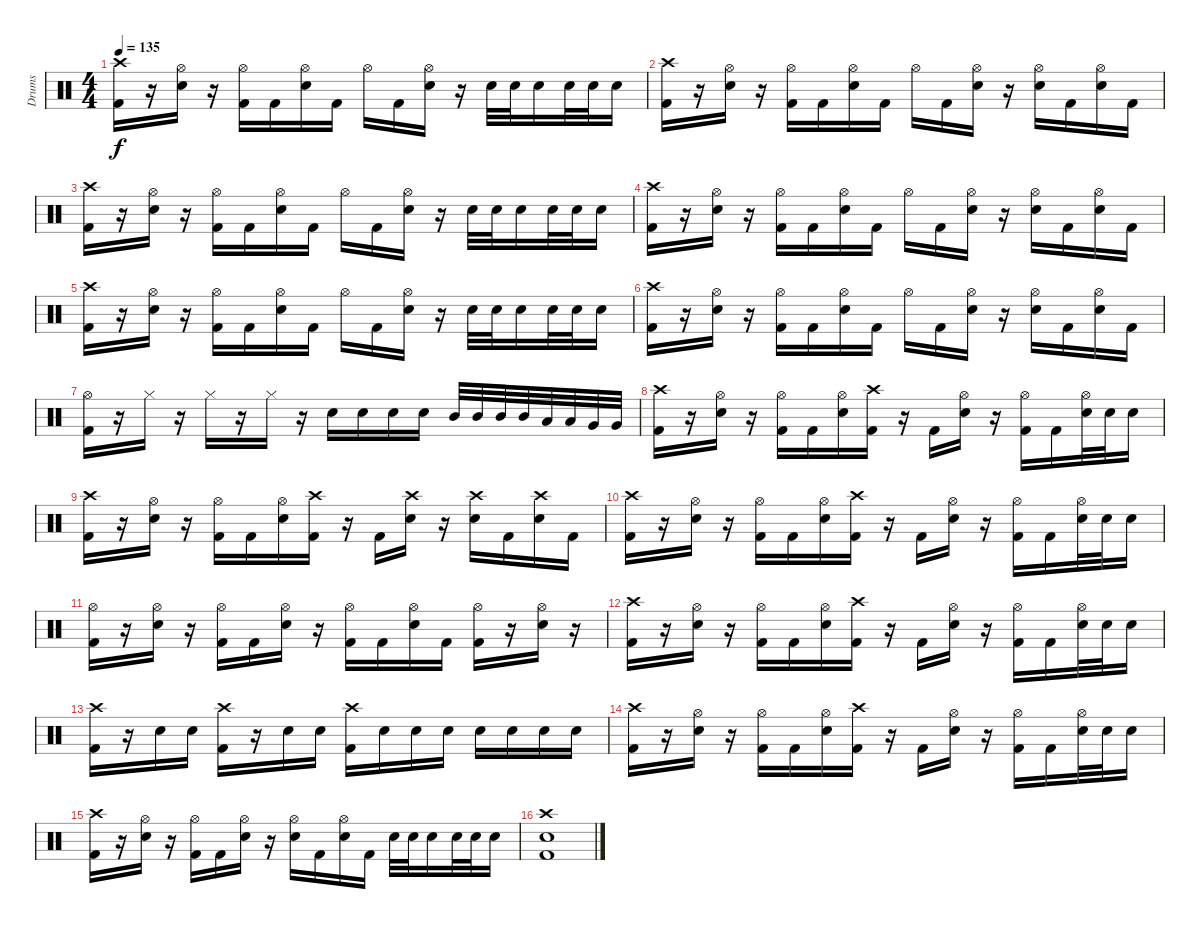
\track ("Drums" "Drums") {instrument percussion}
\staff {score}
\articulation defaults
\ts (4 4)
\tempo 135
\clef neutral
\ks c
("Crash high (hit)" "Kick (hit) 2").16{dy f} r.16 ("Hi-Hat (open)" "Electric Snare (hit)").16 r.16 ("Hi-Hat (open)" "Kick (hit) 2").16 "Kick (hit) 2".16 ("Hi-Hat (open)" "Electric Snare (hit)").16 "Kick (hit) 2".16 "Hi-Hat (open)".16 "Kick (hit) 2".16 ("Hi-Hat (open)" "Electric Snare (hit)").16 r.16 "Electric Snare (hit)".32 "Electric Snare (hit)".32 "Electric Snare (hit)".16 "Electric Snare (hit)".32 "Electric Snare (hit)".32 "Electric Snare (hit)".16 |
("Crash high (hit)" "Kick (hit) 2").16 r.16 ("Hi-Hat (open)" "Electric Snare (hit)").16 r.16 ("Hi-Hat (open)" "Kick (hit) 2").16 "Kick (hit) 2".16 ("Hi-Hat (open)" "Electric Snare (hit)").16 "Kick (hit) 2".16 "Hi-Hat (open)".16 "Kick (hit) 2".16 ("Hi-Hat (open)" "Electric Snare (hit)").16 r.16 ("Hi-Hat (open)" "Electric Snare (hit)").16 "Kick (hit) 2".16 ("Hi-Hat (open)" "Electric Snare (hit)").16 "Kick (hit) 2".16 |
("Crash high (hit)" "Kick (hit) 2").16 r.16 ("Hi-Hat (open)" "Electric Snare (hit)").16 r.16 ("Hi-Hat (open)" "Kick (hit) 2").16 "Kick (hit) 2".16 ("Hi-Hat (open)" "Electric Snare (hit)").16 "Kick (hit) 2".16 "Hi-Hat (open)".16 "Kick (hit) 2".16 ("Hi-Hat (open)" "Electric Snare (hit)").16 r.16 "Electric Snare (hit)".32 "Electric Snare (hit)".32 "Electric Snare (hit)".16 "Electric Snare (hit)".32 "Electric Snare (hit)".32 "Electric Snare (hit)".16 |
("Crash high (hit)" "Kick (hit) 2").16 r.16 ("Hi-Hat (open)" "Electric Snare (hit)").16 r.16 ("Hi-Hat (open)" "Kick (hit) 2").16 "Kick (hit) 2".16 ("Hi-Hat (open)" "Electric Snare (hit)").16 "Kick (hit) 2".16 "Hi-Hat (open)".16 "Kick (hit) 2".16 ("Hi-Hat (open)" "Electric Snare (hit)").16 r.16 ("Hi-Hat (open)" "Electric Snare (hit)").16 "Kick (hit) 2".16 ("Hi-Hat (open)" "Electric Snare (hit)").16 "Kick (hit) 2".16 |
("Crash high (hit)" "Kick (hit) 2").16 r.16 ("Hi-Hat (open)" "Electric Snare (hit)").16 r.16 ("Hi-Hat (open)" "Kick (hit) 2").16 "Kick (hit) 2".16 ("Hi-Hat (open)" "Electric Snare (hit)").16 "Kick (hit) 2".16 "Hi-Hat (open)".16 "Kick (hit) 2".16 ("Hi-Hat (open)" "Electric Snare (hit)").16 r.16 "Electric Snare (hit)".32 "Electric Snare (hit)".32 "Electric Snare (hit)".16 "Electric Snare (hit)".32 "Electric Snare (hit)".32 "Electric Snare (hit)".16 |
("Crash high (hit)" "Kick (hit) 2").16 r.16 ("Hi-Hat (open)" "Electric Snare (hit)").16 r.16 ("Hi-Hat (open)" "Kick (hit) 2").16 "Kick (hit) 2".16 ("Hi-Hat (open)" "Electric Snare (hit)").16 "Kick (hit) 2".16 "Hi-Hat (open)".16 "Kick (hit) 2".16 ("Hi-Hat (open)" "Electric Snare (hit)").16 r.16 ("Hi-Hat (open)" "Electric Snare (hit)").16 "Kick (hit) 2".16 ("Hi-Hat (open)" "Electric Snare (hit)").16 "Kick (hit) 2".16 |
("Hi-Hat (open)" "Kick (hit) 2").16 r.16 "Hi-Hat (closed)".16 r.16 "Hi-Hat (closed)".16 r.16 "Hi-Hat (closed)".16 r.16 "Electric Snare (hit)".16 "Electric Snare (hit)".16 "Electric Snare (hit)".16 "Electric Snare (hit)".16 "Mid Tom (hit)".32 "Mid Tom (hit)".32 "Mid Tom (hit)".32 "Mid Tom (hit)".32 "Low Tom (hit)".32 "Low Tom (hit)".32 "Very Low Tom (hit)".32 "Very Low Tom (hit)".32 |
("Crash high (hit)" "Kick (hit) 2").16 r.16 ("Hi-Hat (open)" "Electric Snare (hit)").16 r.16 ("Hi-Hat (open)" "Kick (hit) 2").16 "Kick (hit) 2".16 ("Hi-Hat (open)" "Electric Snare (hit)").16 ("Crash high (hit)" "Kick (hit) 2").16 r.16 "Kick (hit) 2".16 ("Hi-Hat (open)" "Electric Snare (hit)").16 r.16 ("Hi-Hat (open)" "Kick (hit) 2").16 "Kick (hit) 2".16 ("Hi-Hat (open)" "Electric Snare (hit)").32 "Electric Snare (hit)".32 "Electric Snare (hit)".16 |
("Crash high (hit)" "Kick (hit) 2").16 r.16 ("Hi-Hat (open)" "Electric Snare (hit)").16 r.16 ("Hi-Hat (open)" "Kick (hit) 2").16 "Kick (hit) 2".16 ("Hi-Hat (open)" "Electric Snare (hit)").16 ("Crash high (hit)" "Kick (hit) 2").16 r.16 "Kick (hit) 2".16 ("Crash high (hit)" "Electric Snare (hit)").16 r.16 ("Crash high (hit)" "Electric Snare (hit)").16 "Kick (hit) 2".16 ("Crash high (hit)" "Electric Snare (hit)").16 "Kick (hit) 2".16 |
("Crash high (hit)" "Kick (hit) 2").16 r.16 ("Hi-Hat (open)" "Electric Snare (hit)").16 r.16 ("Hi-Hat (open)" "Kick (hit) 2").16 "Kick (hit) 2".16 ("Hi-Hat (open)" "Electric Snare (hit)").16 ("Crash high (hit)" "Kick (hit) 2").16 r.16 "Kick (hit) 2".16 ("Hi-Hat (open)" "Electric Snare (hit)").16 r.16 ("Hi-Hat (open)" "Kick (hit) 2").16 "Kick (hit) 2".16 ("Hi-Hat (open)" "Electric Snare (hit)").32 "Electric Snare (hit)".32 "Electric Snare (hit)".16 |
("Hi-Hat (open)" "Kick (hit) 2").16 r.16 ("Hi-Hat (open)" "Electric Snare (hit)").16 r.16 ("Hi-Hat (open)" "Kick (hit) 2").16 "Kick (hit) 2".16 ("Hi-Hat (open)" "Electric Snare (hit)").16 r.16 ("Hi-Hat (open)" "Kick (hit) 2").16 "Kick (hit) 2".16 ("Hi-Hat (open)" "Electric Snare (hit)").16 "Kick (hit) 2".16 ("Hi-Hat (open)" "Kick (hit) 2").16 r.16 ("Hi-Hat (open)" "Electric Snare (hit)").16 r.16 |
("Crash high (hit)" "Kick (hit) 2").16 r.16 ("Hi-Hat (open)" "Electric Snare (hit)").16 r.16 ("Hi-Hat (open)" "Kick (hit) 2").16 "Kick (hit) 2".16 ("Hi-Hat (open)" "Electric Snare (hit)").16 ("Crash high (hit)" "Kick (hit) 2").16 r.16 "Kick (hit) 2".16 ("Hi-Hat (open)" "Electric Snare (hit)").16 r.16 ("Hi-Hat (open)" "Kick (hit) 2").16 "Kick (hit) 2".16 ("Hi-Hat (open)" "Electric Snare (hit)").32 "Electric Snare (hit)".32 "Electric Snare (hit)".16 |
("Crash high (hit)" "Kick (hit) 2").16 r.16 "Electric Snare (hit)".16 "Electric Snare (hit)".16 ("Crash high (hit)" "Kick (hit) 2").16 r.16 "Electric Snare (hit)".16 "Electric Snare (hit)".16 ("Crash high (hit)" "Kick (hit) 2").16 "Electric Snare (hit)".16 "Electric Snare (hit)".16 "Electric Snare (hit)".16 "Electric Snare (hit)".16 "Electric Snare (hit)".16 "Electric Snare (hit)".16 "Electric Snare (hit)".16 |
("Crash high (hit)" "Kick (hit) 2").16 r.16 ("Hi-Hat (open)" "Electric Snare (hit)").16 r.16 ("Hi-Hat (open)" "Kick (hit) 2").16 "Kick (hit) 2".16 ("Hi-Hat (open)" "Electric Snare (hit)").16 ("Crash high (hit)" "Kick (hit) 2").16 r.16 "Kick (hit) 2".16 ("Hi-Hat (open)" "Electric Snare (hit)").16 r.16 ("Hi-Hat (open)" "Kick (hit) 2").16 "Kick (hit) 2".16 ("Hi-Hat (open)" "Electric Snare (hit)").32 "Electric Snare (hit)".32 "Electric Snare (hit)".16 |
("Crash high (hit)" "Kick (hit) 2").16 r.16 ("Hi-Hat (open)" "Electric Snare (hit)").16 r.16 ("Hi-Hat (open)" "Kick (hit) 2").16 "Kick (hit) 2".16 ("Hi-Hat (open)" "Electric Snare (hit)").16 r.16 ("Hi-Hat (open)" "Electric Snare (hit)").16 "Kick (hit) 2".16 ("Hi-Hat (open)" "Electric Snare (hit)").16 "Kick (hit) 2".16 "Electric Snare (hit)".32 "Electric Snare (hit)".32 "Electric Snare (hit)".16 "Electric Snare (hit)".32 "Electric Snare (hit)".32 "Electric Snare (hit)".16 |
("Crash high (hit)" "Kick (hit) 2" "Electric Snare (hit)").1
